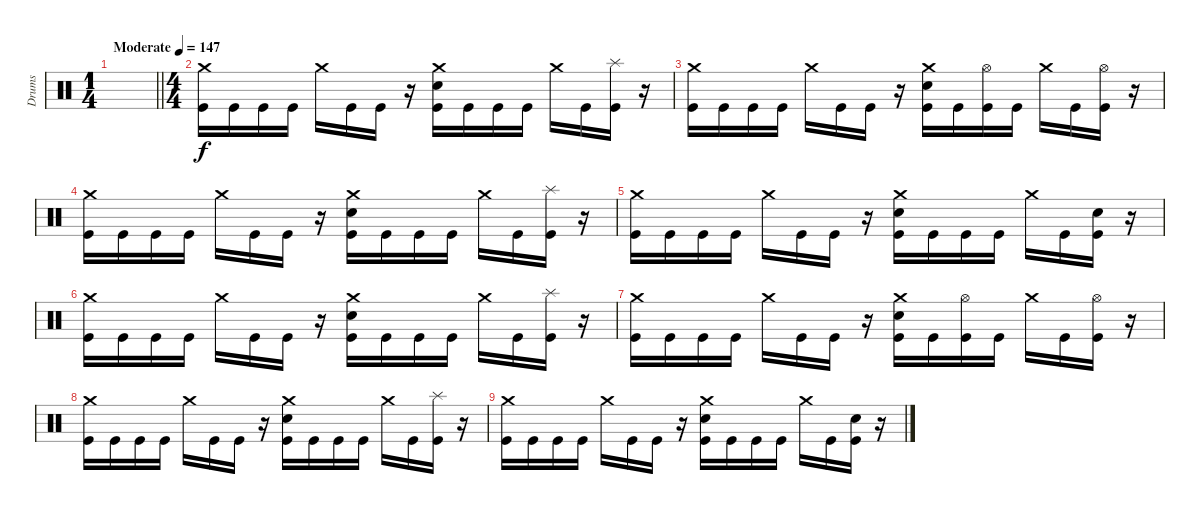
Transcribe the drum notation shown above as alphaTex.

\track ("Drums" "Drums") {instrument percussion}
\staff
\articulation defaults
\ts (1 4)
\tempo (147 "Moderate")
\clef neutral
\barLineRight lightlight
\ks c
|
\ts (4 4)
("Crash medium (hit)" "Kick (hit)").16 "Kick (hit)".16 "Kick (hit)".16 "Kick (hit)".16 "Crash medium (hit)".16 "Kick (hit)".16 "Kick (hit)".16 r.16 ("Crash medium (hit)" "Electric Snare (hit)" "Kick (hit)").16 "Kick (hit)".16 "Kick (hit)".16 "Kick (hit)".16 "Crash medium (hit)".16 "Kick (hit)".16 ("Splash (hit)" "Kick (hit)").16 r.16 |
("Crash medium (hit)" "Kick (hit)").16 "Kick (hit)".16 "Kick (hit)".16 "Kick (hit)".16 "Crash medium (hit)".16 "Kick (hit)".16 "Kick (hit)".16 r.16 ("Crash medium (hit)" "Electric Snare (hit)" "Kick (hit)").16 "Kick (hit)".16 ("Hi-Hat (open)" "Kick (hit)").16 "Kick (hit)".16 "Crash medium (hit)".16 "Kick (hit)".16 ("Hi-Hat (open)" "Kick (hit)").16 r.16 |
("Crash medium (hit)" "Kick (hit)").16 "Kick (hit)".16 "Kick (hit)".16 "Kick (hit)".16 "Crash medium (hit)".16 "Kick (hit)".16 "Kick (hit)".16 r.16 ("Crash medium (hit)" "Electric Snare (hit)" "Kick (hit)").16 "Kick (hit)".16 "Kick (hit)".16 "Kick (hit)".16 "Crash medium (hit)".16 "Kick (hit)".16 ("Splash (hit)" "Kick (hit)").16 r.16 |
("Crash medium (hit)" "Kick (hit)").16 "Kick (hit)".16 "Kick (hit)".16 "Kick (hit)".16 "Crash medium (hit)".16 "Kick (hit)".16 "Kick (hit)".16 r.16 ("Crash medium (hit)" "Electric Snare (hit)" "Kick (hit)").16 "Kick (hit)".16 "Kick (hit)".16 "Kick (hit)".16 "Crash medium (hit)".16 "Kick (hit)".16 ("Electric Snare (hit)" "Kick (hit)").16 r.16 |
("Crash medium (hit)" "Kick (hit)").16 "Kick (hit)".16 "Kick (hit)".16 "Kick (hit)".16 "Crash medium (hit)".16 "Kick (hit)".16 "Kick (hit)".16 r.16 ("Crash medium (hit)" "Electric Snare (hit)" "Kick (hit)").16 "Kick (hit)".16 "Kick (hit)".16 "Kick (hit)".16 "Crash medium (hit)".16 "Kick (hit)".16 ("Splash (hit)" "Kick (hit)").16 r.16 |
("Crash medium (hit)" "Kick (hit)").16 "Kick (hit)".16 "Kick (hit)".16 "Kick (hit)".16 "Crash medium (hit)".16 "Kick (hit)".16 "Kick (hit)".16 r.16 ("Crash medium (hit)" "Electric Snare (hit)" "Kick (hit)").16 "Kick (hit)".16 ("Hi-Hat (open)" "Kick (hit)").16 "Kick (hit)".16 "Crash medium (hit)".16 "Kick (hit)".16 ("Hi-Hat (open)" "Kick (hit)").16 r.16 |
("Crash medium (hit)" "Kick (hit)").16 "Kick (hit)".16 "Kick (hit)".16 "Kick (hit)".16 "Crash medium (hit)".16 "Kick (hit)".16 "Kick (hit)".16 r.16 ("Crash medium (hit)" "Electric Snare (hit)" "Kick (hit)").16 "Kick (hit)".16 "Kick (hit)".16 "Kick (hit)".16 "Crash medium (hit)".16 "Kick (hit)".16 ("Splash (hit)" "Kick (hit)").16 r.16 |
("Crash medium (hit)" "Kick (hit)").16 "Kick (hit)".16 "Kick (hit)".16 "Kick (hit)".16 "Crash medium (hit)".16 "Kick (hit)".16 "Kick (hit)".16 r.16 ("Crash medium (hit)" "Electric Snare (hit)" "Kick (hit)").16 "Kick (hit)".16 "Kick (hit)".16 "Kick (hit)".16 "Crash medium (hit)".16 "Kick (hit)".16 ("Electric Snare (hit)" "Kick (hit)").16 r.16
